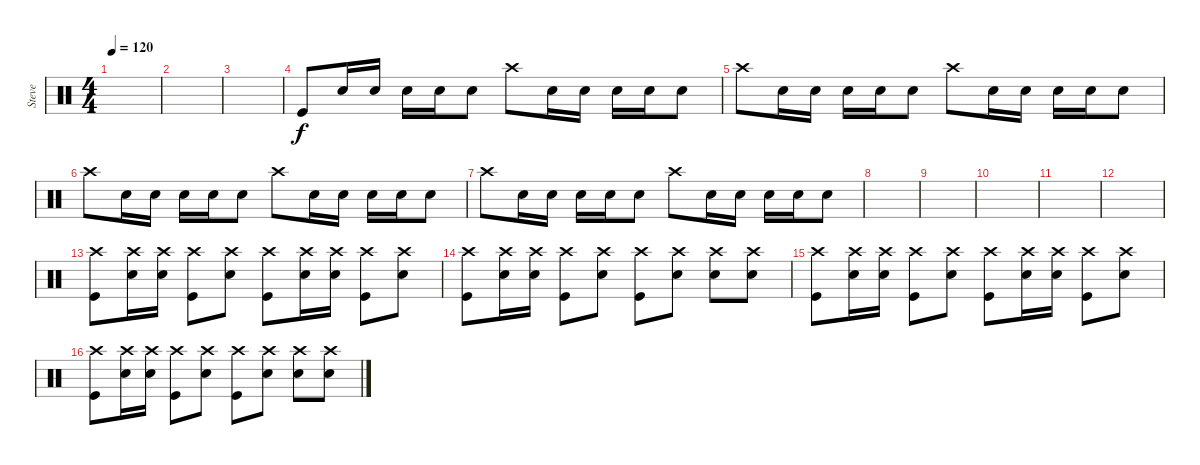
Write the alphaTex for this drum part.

\track ("Steve" "Steve") {instrument percussion}
\staff {score}
\articulation defaults
\ts (4 4)
\tempo 120
\clef neutral
\ks c
|
|
|
"Kick (hit)".8 "Snare (hit) 2".16 "Snare (hit) 2".16 "Snare (hit) 2".16 "Snare (hit) 2".16 "Snare (hit) 2".8 "Crash high (hit)".8 "Snare (hit) 2".16 "Snare (hit) 2".16 "Snare (hit) 2".16 "Snare (hit) 2".16 "Snare (hit) 2".8 |
"Crash high (hit)".8 "Snare (hit) 2".16 "Snare (hit) 2".16 "Snare (hit) 2".16 "Snare (hit) 2".16 "Snare (hit) 2".8 "Crash high (hit)".8 "Snare (hit) 2".16 "Snare (hit) 2".16 "Snare (hit) 2".16 "Snare (hit) 2".16 "Snare (hit) 2".8 |
"Crash high (hit)".8 "Snare (hit) 2".16 "Snare (hit) 2".16 "Snare (hit) 2".16 "Snare (hit) 2".16 "Snare (hit) 2".8 "Crash high (hit)".8 "Snare (hit) 2".16 "Snare (hit) 2".16 "Snare (hit) 2".16 "Snare (hit) 2".16 "Snare (hit) 2".8 |
"Crash high (hit)".8 "Snare (hit) 2".16 "Snare (hit) 2".16 "Snare (hit) 2".16 "Snare (hit) 2".16 "Snare (hit) 2".8 "Crash high (hit)".8 "Snare (hit) 2".16 "Snare (hit) 2".16 "Snare (hit) 2".16 "Snare (hit) 2".16 "Snare (hit) 2".8 |
|
|
|
|
|
("Crash high (hit)" "Kick (hit)").8 ("Crash high (hit)" "Snare (hit) 2").16 ("Crash high (hit)" "Snare (hit) 2").16 ("Crash high (hit)" "Kick (hit)").8 ("Crash high (hit)" "Snare (hit) 2").8 ("Crash high (hit)" "Kick (hit)").8 ("Crash high (hit)" "Snare (hit) 2").16 ("Crash high (hit)" "Snare (hit) 2").16 ("Crash high (hit)" "Kick (hit)").8 ("Crash high (hit)" "Snare (hit) 2").8 |
("Crash high (hit)" "Kick (hit)").8 ("Crash high (hit)" "Snare (hit) 2").16 ("Crash high (hit)" "Snare (hit) 2").16 ("Crash high (hit)" "Kick (hit)").8 ("Crash high (hit)" "Snare (hit) 2").8 ("Crash high (hit)" "Kick (hit)").8 ("Crash high (hit)" "Snare (hit) 2").8 ("Crash high (hit)" "Snare (hit) 2").8 ("Crash high (hit)" "Snare (hit) 2").8 |
("Crash high (hit)" "Kick (hit)").8 ("Crash high (hit)" "Snare (hit) 2").16 ("Crash high (hit)" "Snare (hit) 2").16 ("Crash high (hit)" "Kick (hit)").8 ("Crash high (hit)" "Snare (hit) 2").8 ("Crash high (hit)" "Kick (hit)").8 ("Crash high (hit)" "Snare (hit) 2").16 ("Crash high (hit)" "Snare (hit) 2").16 ("Crash high (hit)" "Kick (hit)").8 ("Crash high (hit)" "Snare (hit) 2").8 |
("Crash high (hit)" "Kick (hit)").8 ("Crash high (hit)" "Snare (hit) 2").16 ("Crash high (hit)" "Snare (hit) 2").16 ("Crash high (hit)" "Kick (hit)").8 ("Crash high (hit)" "Snare (hit) 2").8 ("Crash high (hit)" "Kick (hit)").8 ("Crash high (hit)" "Snare (hit) 2").8 ("Crash high (hit)" "Snare (hit) 2").8 ("Crash high (hit)" "Snare (hit) 2").8
